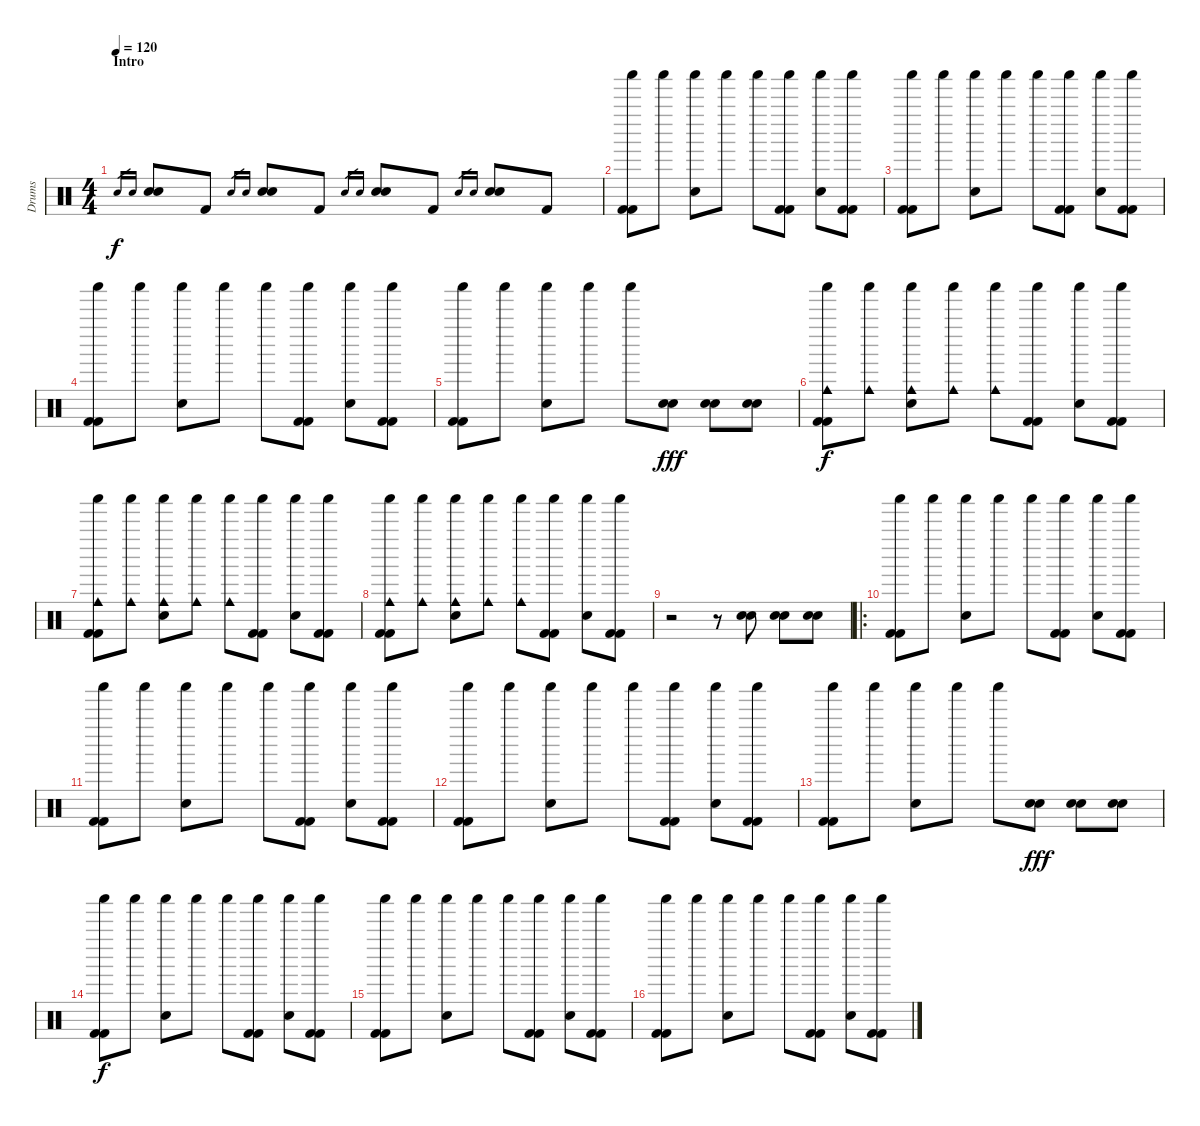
\track ("Drums" "Drums") {instrument percussion}
\staff {score}
\articulation defaults
\ts (4 4)
\section ("" "Intro")
\tempo 120
\clef neutral
\ks c "Electric Snare (hit)".16{gr dy f} "Electric Snare (hit)".16{gr}
("Electric Snare (hit)" "Electric Snare (hit)").8 "Kick (hit) 2".8 "Electric Snare (hit)".16{gr} "Electric Snare (hit)".16{gr} ("Electric Snare (hit)" "Electric Snare (hit)").8 "Kick (hit) 2".8 "Electric Snare (hit)".16{gr} "Electric Snare (hit)".16{gr} ("Electric Snare (hit)" "Electric Snare (hit)").8 "Kick (hit) 2".8 "Electric Snare (hit)".16{gr} "Electric Snare (hit)".16{gr} ("Electric Snare (hit)" "Electric Snare (hit)").8 "Kick (hit) 2".8 |
("Shaker (hit)" "Kick (hit) 2" "Kick (hit) 2").8 "Shaker (hit)".8 ("Shaker (hit)" "Electric Snare (hit)").8 "Shaker (hit)".8 "Shaker (hit)".8 ("Shaker (hit)" "Kick (hit) 2" "Kick (hit) 2").8 ("Shaker (hit)" "Electric Snare (hit)").8 ("Shaker (hit)" "Kick (hit) 2" "Kick (hit) 2").8 |
("Shaker (hit)" "Kick (hit) 2" "Kick (hit) 2").8 "Shaker (hit)".8 ("Shaker (hit)" "Electric Snare (hit)").8 "Shaker (hit)".8 "Shaker (hit)".8 ("Shaker (hit)" "Kick (hit) 2" "Kick (hit) 2").8 ("Shaker (hit)" "Electric Snare (hit)").8 ("Shaker (hit)" "Kick (hit) 2" "Kick (hit) 2").8 |
("Shaker (hit)" "Kick (hit) 2" "Kick (hit) 2").8 "Shaker (hit)".8 ("Shaker (hit)" "Electric Snare (hit)").8 "Shaker (hit)".8 "Shaker (hit)".8 ("Shaker (hit)" "Kick (hit) 2" "Kick (hit) 2").8 ("Shaker (hit)" "Electric Snare (hit)").8 ("Shaker (hit)" "Kick (hit) 2" "Kick (hit) 2").8 |
("Shaker (hit)" "Kick (hit) 2" "Kick (hit) 2").8 "Shaker (hit)".8 ("Shaker (hit)" "Electric Snare (hit)").8 "Shaker (hit)".8 "Shaker (hit)".8 ("Electric Snare (hit)" "Electric Snare (hit)").8{dy fff} ("Electric Snare (hit)" "Electric Snare (hit)").8 ("Electric Snare (hit)" "Electric Snare (hit)").8 |
("Shaker (hit)" "Cowbell medium (hit)" "Kick (hit) 2" "Kick (hit) 2").8{dy f} ("Shaker (hit)" "Cowbell medium (hit)").8 ("Shaker (hit)" "Cowbell medium (hit)" "Electric Snare (hit)").8 ("Shaker (hit)" "Cowbell medium (hit)").8 ("Shaker (hit)" "Cowbell medium (hit)").8 ("Shaker (hit)" "Kick (hit) 2" "Kick (hit) 2").8 ("Shaker (hit)" "Electric Snare (hit)").8 ("Shaker (hit)" "Kick (hit) 2" "Kick (hit) 2").8 |
("Shaker (hit)" "Cowbell medium (hit)" "Kick (hit) 2" "Kick (hit) 2").8 ("Shaker (hit)" "Cowbell medium (hit)").8 ("Shaker (hit)" "Cowbell medium (hit)" "Electric Snare (hit)").8 ("Shaker (hit)" "Cowbell medium (hit)").8 ("Shaker (hit)" "Cowbell medium (hit)").8 ("Shaker (hit)" "Kick (hit) 2" "Kick (hit) 2").8 ("Shaker (hit)" "Electric Snare (hit)").8 ("Shaker (hit)" "Kick (hit) 2" "Kick (hit) 2").8 |
("Shaker (hit)" "Cowbell medium (hit)" "Kick (hit) 2" "Kick (hit) 2").8 ("Shaker (hit)" "Cowbell medium (hit)").8 ("Shaker (hit)" "Cowbell medium (hit)" "Electric Snare (hit)").8 ("Shaker (hit)" "Cowbell medium (hit)").8 ("Shaker (hit)" "Cowbell medium (hit)").8 ("Shaker (hit)" "Kick (hit) 2" "Kick (hit) 2").8 ("Shaker (hit)" "Electric Snare (hit)").8 ("Shaker (hit)" "Kick (hit) 2" "Kick (hit) 2").8 |
r.2 r.8 ("Electric Snare (hit)" "Electric Snare (hit)").8 ("Electric Snare (hit)" "Electric Snare (hit)").8 ("Electric Snare (hit)" "Electric Snare (hit)").8 |
\ro
("Shaker (hit)" "Kick (hit) 2" "Kick (hit) 2").8 "Shaker (hit)".8 ("Shaker (hit)" "Electric Snare (hit)").8 "Shaker (hit)".8 "Shaker (hit)".8 ("Shaker (hit)" "Kick (hit) 2" "Kick (hit) 2").8 ("Shaker (hit)" "Electric Snare (hit)").8 ("Shaker (hit)" "Kick (hit) 2" "Kick (hit) 2").8 |
("Shaker (hit)" "Kick (hit) 2" "Kick (hit) 2").8 "Shaker (hit)".8 ("Shaker (hit)" "Electric Snare (hit)").8 "Shaker (hit)".8 "Shaker (hit)".8 ("Shaker (hit)" "Kick (hit) 2" "Kick (hit) 2").8 ("Shaker (hit)" "Electric Snare (hit)").8 ("Shaker (hit)" "Kick (hit) 2" "Kick (hit) 2").8 |
("Shaker (hit)" "Kick (hit) 2" "Kick (hit) 2").8 "Shaker (hit)".8 ("Shaker (hit)" "Electric Snare (hit)").8 "Shaker (hit)".8 "Shaker (hit)".8 ("Shaker (hit)" "Kick (hit) 2" "Kick (hit) 2").8 ("Shaker (hit)" "Electric Snare (hit)").8 ("Shaker (hit)" "Kick (hit) 2" "Kick (hit) 2").8 |
("Shaker (hit)" "Kick (hit) 2" "Kick (hit) 2").8 "Shaker (hit)".8 ("Shaker (hit)" "Electric Snare (hit)").8 "Shaker (hit)".8 "Shaker (hit)".8 ("Electric Snare (hit)" "Electric Snare (hit)").8{dy fff} ("Electric Snare (hit)" "Electric Snare (hit)").8 ("Electric Snare (hit)" "Electric Snare (hit)").8 |
("Shaker (hit)" "Kick (hit) 2" "Kick (hit) 2").8{dy f} "Shaker (hit)".8 ("Shaker (hit)" "Electric Snare (hit)").8 "Shaker (hit)".8 "Shaker (hit)".8 ("Shaker (hit)" "Kick (hit) 2" "Kick (hit) 2").8 ("Shaker (hit)" "Electric Snare (hit)").8 ("Shaker (hit)" "Kick (hit) 2" "Kick (hit) 2").8 |
("Shaker (hit)" "Kick (hit) 2" "Kick (hit) 2").8 "Shaker (hit)".8 ("Shaker (hit)" "Electric Snare (hit)").8 "Shaker (hit)".8 "Shaker (hit)".8 ("Shaker (hit)" "Kick (hit) 2" "Kick (hit) 2").8 ("Shaker (hit)" "Electric Snare (hit)").8 ("Shaker (hit)" "Kick (hit) 2" "Kick (hit) 2").8 |
("Shaker (hit)" "Kick (hit) 2" "Kick (hit) 2").8 "Shaker (hit)".8 ("Shaker (hit)" "Electric Snare (hit)").8 "Shaker (hit)".8 "Shaker (hit)".8 ("Shaker (hit)" "Kick (hit) 2" "Kick (hit) 2").8 ("Shaker (hit)" "Electric Snare (hit)").8 ("Shaker (hit)" "Kick (hit) 2" "Kick (hit) 2").8
